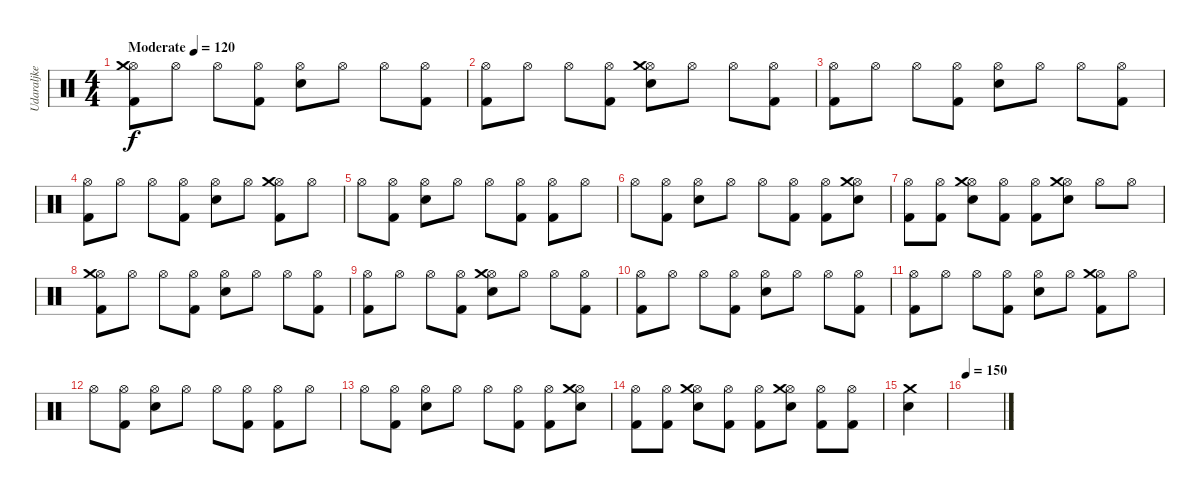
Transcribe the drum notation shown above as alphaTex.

\track ("Udaraljke" "Udaraljke") {instrument percussion}
\staff {score}
\articulation defaults
\ts (4 4)
\tempo (120 "Moderate")
\tempo 160
\tempo (120 "Moderate")
\clef neutral
\ks c
("Hi-Hat (open)" "Crash medium (hit)" "Kick (hit) 2").8{dy f} "Hi-Hat (open)".8 "Hi-Hat (open)".8 ("Hi-Hat (open)" "Kick (hit) 2").8 ("Hi-Hat (open)" "Snare (hit) 2").8 "Hi-Hat (open)".8 "Hi-Hat (open)".8 ("Hi-Hat (open)" "Kick (hit) 2").8 |
("Hi-Hat (open)" "Kick (hit) 2").8 "Hi-Hat (open)".8 "Hi-Hat (open)".8 ("Hi-Hat (open)" "Kick (hit) 2").8 ("Hi-Hat (open)" "Crash medium (hit)" "Snare (hit) 2").8 "Hi-Hat (open)".8 "Hi-Hat (open)".8 ("Hi-Hat (open)" "Kick (hit) 2").8 |
("Hi-Hat (open)" "Kick (hit) 2").8 "Hi-Hat (open)".8 "Hi-Hat (open)".8 ("Hi-Hat (open)" "Kick (hit) 2").8 ("Hi-Hat (open)" "Snare (hit) 2").8 "Hi-Hat (open)".8 "Hi-Hat (open)".8 ("Hi-Hat (open)" "Kick (hit) 2").8 |
("Hi-Hat (open)" "Kick (hit) 2").8 "Hi-Hat (open)".8 "Hi-Hat (open)".8 ("Hi-Hat (open)" "Kick (hit) 2").8 ("Hi-Hat (open)" "Snare (hit) 2").8 "Hi-Hat (open)".8 ("Hi-Hat (open)" "Crash medium (hit)" "Kick (hit) 2").8 "Hi-Hat (open)".8 |
"Hi-Hat (open)".8 ("Hi-Hat (open)" "Kick (hit) 2").8 ("Hi-Hat (open)" "Snare (hit) 2").8 "Hi-Hat (open)".8 "Hi-Hat (open)".8 ("Hi-Hat (open)" "Kick (hit) 2").8 ("Hi-Hat (open)" "Kick (hit) 2").8 "Hi-Hat (open)".8 |
"Hi-Hat (open)".8 ("Hi-Hat (open)" "Kick (hit) 2").8 ("Hi-Hat (open)" "Snare (hit) 2").8 "Hi-Hat (open)".8 "Hi-Hat (open)".8 ("Hi-Hat (open)" "Kick (hit) 2").8 ("Hi-Hat (open)" "Kick (hit) 2").8 ("Hi-Hat (open)" "Crash medium (hit)" "Snare (hit) 2").8 |
("Hi-Hat (open)" "Kick (hit) 2").8 ("Hi-Hat (open)" "Kick (hit) 2").8 ("Hi-Hat (open)" "Crash medium (hit)" "Snare (hit) 2").8 ("Hi-Hat (open)" "Kick (hit) 2").8 ("Hi-Hat (open)" "Kick (hit) 2").8 ("Hi-Hat (open)" "Crash medium (hit)" "Snare (hit) 2").8 "Hi-Hat (open)".8 "Hi-Hat (open)".8 |
("Hi-Hat (open)" "Crash medium (hit)" "Kick (hit) 2").8 "Hi-Hat (open)".8 "Hi-Hat (open)".8 ("Hi-Hat (open)" "Kick (hit) 2").8 ("Hi-Hat (open)" "Snare (hit) 2").8 "Hi-Hat (open)".8 "Hi-Hat (open)".8 ("Hi-Hat (open)" "Kick (hit) 2").8 |
("Hi-Hat (open)" "Kick (hit) 2").8 "Hi-Hat (open)".8 "Hi-Hat (open)".8 ("Hi-Hat (open)" "Kick (hit) 2").8 ("Hi-Hat (open)" "Crash medium (hit)" "Snare (hit) 2").8 "Hi-Hat (open)".8 "Hi-Hat (open)".8 ("Hi-Hat (open)" "Kick (hit) 2").8 |
("Hi-Hat (open)" "Kick (hit) 2").8 "Hi-Hat (open)".8 "Hi-Hat (open)".8 ("Hi-Hat (open)" "Kick (hit) 2").8 ("Hi-Hat (open)" "Snare (hit) 2").8 "Hi-Hat (open)".8 "Hi-Hat (open)".8 ("Hi-Hat (open)" "Kick (hit) 2").8 |
("Hi-Hat (open)" "Kick (hit) 2").8 "Hi-Hat (open)".8 "Hi-Hat (open)".8 ("Hi-Hat (open)" "Kick (hit) 2").8 ("Hi-Hat (open)" "Snare (hit) 2").8 "Hi-Hat (open)".8 ("Hi-Hat (open)" "Crash medium (hit)" "Kick (hit) 2").8 "Hi-Hat (open)".8 |
"Hi-Hat (open)".8 ("Hi-Hat (open)" "Kick (hit) 2").8 ("Hi-Hat (open)" "Snare (hit) 2").8 "Hi-Hat (open)".8 "Hi-Hat (open)".8 ("Hi-Hat (open)" "Kick (hit) 2").8 ("Hi-Hat (open)" "Kick (hit) 2").8 "Hi-Hat (open)".8 |
"Hi-Hat (open)".8 ("Hi-Hat (open)" "Kick (hit) 2").8 ("Hi-Hat (open)" "Snare (hit) 2").8 "Hi-Hat (open)".8 "Hi-Hat (open)".8 ("Hi-Hat (open)" "Kick (hit) 2").8 ("Hi-Hat (open)" "Kick (hit) 2").8 ("Hi-Hat (open)" "Crash medium (hit)" "Snare (hit) 2").8 |
("Hi-Hat (open)" "Kick (hit) 2").8 ("Hi-Hat (open)" "Kick (hit) 2").8 ("Hi-Hat (open)" "Crash medium (hit)" "Snare (hit) 2").8 ("Hi-Hat (open)" "Kick (hit) 2").8 ("Hi-Hat (open)" "Kick (hit) 2").8 ("Hi-Hat (open)" "Crash medium (hit)" "Snare (hit) 2").8 ("Hi-Hat (open)" "Kick (hit) 2").8 ("Hi-Hat (open)" "Kick (hit) 2").8 |
("Crash medium (hit)" "Snare (hit) 2").4 |
\tempo 150
